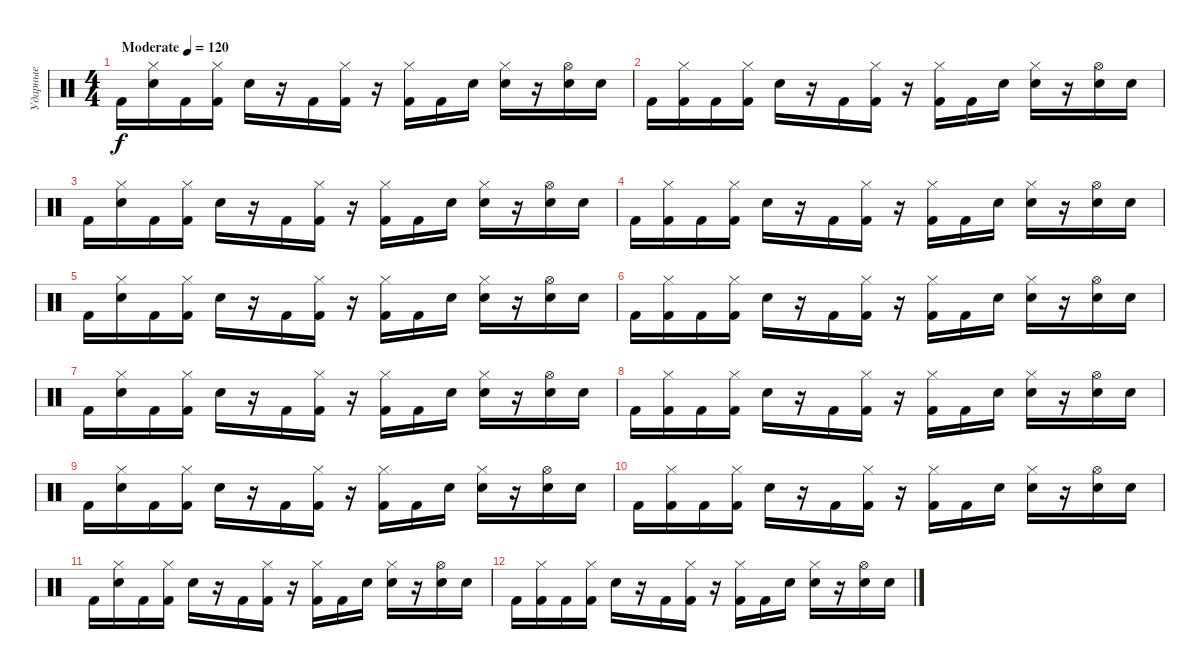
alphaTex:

\track ("Ударные" "Ударные") {instrument percussion}
\staff {score}
\articulation defaults
\ts (4 4)
\tempo (120 "Moderate")
\clef neutral
\ks c "Kick (hit) 2".16{dy f}
("Hi-Hat (closed)" "Snare (hit) 2").16 "Kick (hit) 2".16 ("Hi-Hat (closed)" "Kick (hit) 2").16 "Electric Snare (hit)".16 r.16 "Kick (hit) 2".16 ("Hi-Hat (closed)" "Kick (hit) 2").16 r.16 ("Hi-Hat (closed)" "Kick (hit) 2").16 "Kick (hit) 2".16 "Electric Snare (hit)".16 ("Hi-Hat (closed)" "Snare (hit) 2").16 r.16 ("Hi-Hat (open)" "Snare (hit) 2").16 "Snare (hit) 2".16 |
"Kick (hit) 2".16 ("Hi-Hat (closed)" "Kick (hit) 2").16 "Kick (hit) 2".16 ("Hi-Hat (closed)" "Kick (hit) 2").16 "Electric Snare (hit)".16 r.16 "Kick (hit) 2".16 ("Hi-Hat (closed)" "Kick (hit) 2").16 r.16 ("Hi-Hat (closed)" "Kick (hit) 2").16 "Kick (hit) 2".16 "Electric Snare (hit)".16 ("Hi-Hat (closed)" "Snare (hit) 2").16 r.16 ("Hi-Hat (open)" "Snare (hit) 2").16 "Snare (hit) 2".16 |
"Kick (hit) 2".16 ("Hi-Hat (closed)" "Snare (hit) 2").16 "Kick (hit) 2".16 ("Hi-Hat (closed)" "Kick (hit) 2").16 "Electric Snare (hit)".16 r.16 "Kick (hit) 2".16 ("Hi-Hat (closed)" "Kick (hit) 2").16 r.16 ("Hi-Hat (closed)" "Kick (hit) 2").16 "Kick (hit) 2".16 "Electric Snare (hit)".16 ("Hi-Hat (closed)" "Snare (hit) 2").16 r.16 ("Hi-Hat (open)" "Snare (hit) 2").16 "Snare (hit) 2".16 |
"Kick (hit) 2".16 ("Hi-Hat (closed)" "Kick (hit) 2").16 "Kick (hit) 2".16 ("Hi-Hat (closed)" "Kick (hit) 2").16 "Electric Snare (hit)".16 r.16 "Kick (hit) 2".16 ("Hi-Hat (closed)" "Kick (hit) 2").16 r.16 ("Hi-Hat (closed)" "Kick (hit) 2").16 "Kick (hit) 2".16 "Electric Snare (hit)".16 ("Hi-Hat (closed)" "Snare (hit) 2").16 r.16 ("Hi-Hat (open)" "Snare (hit) 2").16 "Snare (hit) 2".16 |
"Kick (hit) 2".16 ("Hi-Hat (closed)" "Snare (hit) 2").16 "Kick (hit) 2".16 ("Hi-Hat (closed)" "Kick (hit) 2").16 "Electric Snare (hit)".16 r.16 "Kick (hit) 2".16 ("Hi-Hat (closed)" "Kick (hit) 2").16 r.16 ("Hi-Hat (closed)" "Kick (hit) 2").16 "Kick (hit) 2".16 "Electric Snare (hit)".16 ("Hi-Hat (closed)" "Snare (hit) 2").16 r.16 ("Hi-Hat (open)" "Snare (hit) 2").16 "Snare (hit) 2".16 |
"Kick (hit) 2".16 ("Hi-Hat (closed)" "Kick (hit) 2").16 "Kick (hit) 2".16 ("Hi-Hat (closed)" "Kick (hit) 2").16 "Electric Snare (hit)".16 r.16 "Kick (hit) 2".16 ("Hi-Hat (closed)" "Kick (hit) 2").16 r.16 ("Hi-Hat (closed)" "Kick (hit) 2").16 "Kick (hit) 2".16 "Electric Snare (hit)".16 ("Hi-Hat (closed)" "Snare (hit) 2").16 r.16 ("Hi-Hat (open)" "Snare (hit) 2").16 "Snare (hit) 2".16 |
"Kick (hit) 2".16 ("Hi-Hat (closed)" "Snare (hit) 2").16 "Kick (hit) 2".16 ("Hi-Hat (closed)" "Kick (hit) 2").16 "Electric Snare (hit)".16 r.16 "Kick (hit) 2".16 ("Hi-Hat (closed)" "Kick (hit) 2").16 r.16 ("Hi-Hat (closed)" "Kick (hit) 2").16 "Kick (hit) 2".16 "Electric Snare (hit)".16 ("Hi-Hat (closed)" "Snare (hit) 2").16 r.16 ("Hi-Hat (open)" "Snare (hit) 2").16 "Snare (hit) 2".16 |
"Kick (hit) 2".16 ("Hi-Hat (closed)" "Kick (hit) 2").16 "Kick (hit) 2".16 ("Hi-Hat (closed)" "Kick (hit) 2").16 "Electric Snare (hit)".16 r.16 "Kick (hit) 2".16 ("Hi-Hat (closed)" "Kick (hit) 2").16 r.16 ("Hi-Hat (closed)" "Kick (hit) 2").16 "Kick (hit) 2".16 "Electric Snare (hit)".16 ("Hi-Hat (closed)" "Snare (hit) 2").16 r.16 ("Hi-Hat (open)" "Snare (hit) 2").16 "Snare (hit) 2".16 |
"Kick (hit) 2".16 ("Hi-Hat (closed)" "Snare (hit) 2").16 "Kick (hit) 2".16 ("Hi-Hat (closed)" "Kick (hit) 2").16 "Electric Snare (hit)".16 r.16 "Kick (hit) 2".16 ("Hi-Hat (closed)" "Kick (hit) 2").16 r.16 ("Hi-Hat (closed)" "Kick (hit) 2").16 "Kick (hit) 2".16 "Electric Snare (hit)".16 ("Hi-Hat (closed)" "Snare (hit) 2").16 r.16 ("Hi-Hat (open)" "Snare (hit) 2").16 "Snare (hit) 2".16 |
"Kick (hit) 2".16 ("Hi-Hat (closed)" "Kick (hit) 2").16 "Kick (hit) 2".16 ("Hi-Hat (closed)" "Kick (hit) 2").16 "Electric Snare (hit)".16 r.16 "Kick (hit) 2".16 ("Hi-Hat (closed)" "Kick (hit) 2").16 r.16 ("Hi-Hat (closed)" "Kick (hit) 2").16 "Kick (hit) 2".16 "Electric Snare (hit)".16 ("Hi-Hat (closed)" "Snare (hit) 2").16 r.16 ("Hi-Hat (open)" "Snare (hit) 2").16 "Snare (hit) 2".16 |
"Kick (hit) 2".16 ("Hi-Hat (closed)" "Snare (hit) 2").16 "Kick (hit) 2".16 ("Hi-Hat (closed)" "Kick (hit) 2").16 "Electric Snare (hit)".16 r.16 "Kick (hit) 2".16 ("Hi-Hat (closed)" "Kick (hit) 2").16 r.16 ("Hi-Hat (closed)" "Kick (hit) 2").16 "Kick (hit) 2".16 "Electric Snare (hit)".16 ("Hi-Hat (closed)" "Snare (hit) 2").16 r.16 ("Hi-Hat (open)" "Snare (hit) 2").16 "Snare (hit) 2".16 |
"Kick (hit) 2".16 ("Hi-Hat (closed)" "Kick (hit) 2").16 "Kick (hit) 2".16 ("Hi-Hat (closed)" "Kick (hit) 2").16 "Electric Snare (hit)".16 r.16 "Kick (hit) 2".16 ("Hi-Hat (closed)" "Kick (hit) 2").16 r.16 ("Hi-Hat (closed)" "Kick (hit) 2").16 "Kick (hit) 2".16 "Electric Snare (hit)".16 ("Hi-Hat (closed)" "Snare (hit) 2").16 r.16 ("Hi-Hat (open)" "Snare (hit) 2").16 "Snare (hit) 2".16
